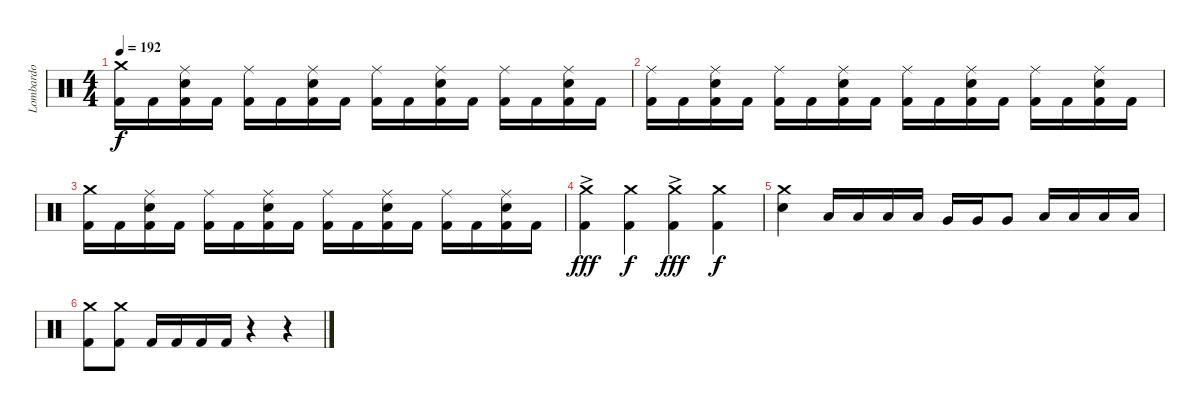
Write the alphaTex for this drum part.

\track ("Lombardo" "Lombardo") {instrument percussion}
\staff {score}
\articulation defaults
\ts (4 4)
\tempo 192
\clef neutral
\ks c
("Crash medium (hit)" "Kick (hit) 2").16{dy f} "Kick (hit) 2".16 ("Ride (middle)" "Snare (hit) 2" "Kick (hit) 2").16 "Kick (hit) 2".16 ("Ride (middle)" "Kick (hit) 2").16 "Kick (hit) 2".16 ("Ride (middle)" "Snare (hit) 2" "Kick (hit) 2").16 "Kick (hit) 2".16 ("Ride (middle)" "Kick (hit) 2").16 "Kick (hit) 2".16 ("Ride (middle)" "Snare (hit) 2" "Kick (hit) 2").16 "Kick (hit) 2".16 ("Ride (middle)" "Kick (hit) 2").16 "Kick (hit) 2".16 ("Ride (middle)" "Snare (hit) 2" "Kick (hit) 2").16 "Kick (hit) 2".16 |
("Ride (middle)" "Kick (hit) 2").16 "Kick (hit) 2".16 ("Ride (middle)" "Snare (hit) 2" "Kick (hit) 2").16 "Kick (hit) 2".16 ("Ride (middle)" "Kick (hit) 2").16 "Kick (hit) 2".16 ("Ride (middle)" "Snare (hit) 2" "Kick (hit) 2").16 "Kick (hit) 2".16 ("Ride (middle)" "Kick (hit) 2").16 "Kick (hit) 2".16 ("Ride (middle)" "Snare (hit) 2" "Kick (hit) 2").16 "Kick (hit) 2".16 ("Ride (middle)" "Kick (hit) 2").16 "Kick (hit) 2".16 ("Ride (middle)" "Snare (hit) 2" "Kick (hit) 2").16 "Kick (hit) 2".16 |
("Crash medium (hit)" "Kick (hit) 2").16 "Kick (hit) 2".16 ("Ride (middle)" "Snare (hit) 2" "Kick (hit) 2").16 "Kick (hit) 2".16 ("Ride (middle)" "Kick (hit) 2").16 "Kick (hit) 2".16 ("Ride (middle)" "Snare (hit) 2" "Kick (hit) 2").16 "Kick (hit) 2".16 ("Ride (middle)" "Kick (hit) 2").16 "Kick (hit) 2".16 ("Ride (middle)" "Snare (hit) 2" "Kick (hit) 2").16 "Kick (hit) 2".16 ("Ride (middle)" "Kick (hit) 2").16 "Kick (hit) 2".16 ("Ride (middle)" "Snare (hit) 2" "Kick (hit) 2").16 "Kick (hit) 2".16 |
("Crash medium (hit)"{ac} "Kick (hit) 2").4{dy fff} ("Crash medium (hit)" "Kick (hit) 2").4{dy f} ("Crash medium (hit)"{ac} "Kick (hit) 2").4{dy fff} ("Crash medium (hit)" "Kick (hit) 2").4{dy f} |
("Crash medium (hit)" "Snare (hit) 2").4 "Low Tom (hit)".16 "Low Tom (hit)".16 "Low Tom (hit)".16 "Low Tom (hit)".16 "Very Low Tom (hit)".16 "Very Low Tom (hit)".16 "Very Low Tom (hit)".8 "Low Floor Tom (hit)".16 "Low Floor Tom (hit)".16 "Low Floor Tom (hit)".16 "Low Floor Tom (hit)".16 |
("Crash medium (hit)" "Kick (hit) 2").8 ("Crash medium (hit)" "Kick (hit) 2").8 "Kick (hit) 2".16 "Kick (hit) 2".16 "Kick (hit) 2".16 "Kick (hit) 2".16 r.4 r.4
